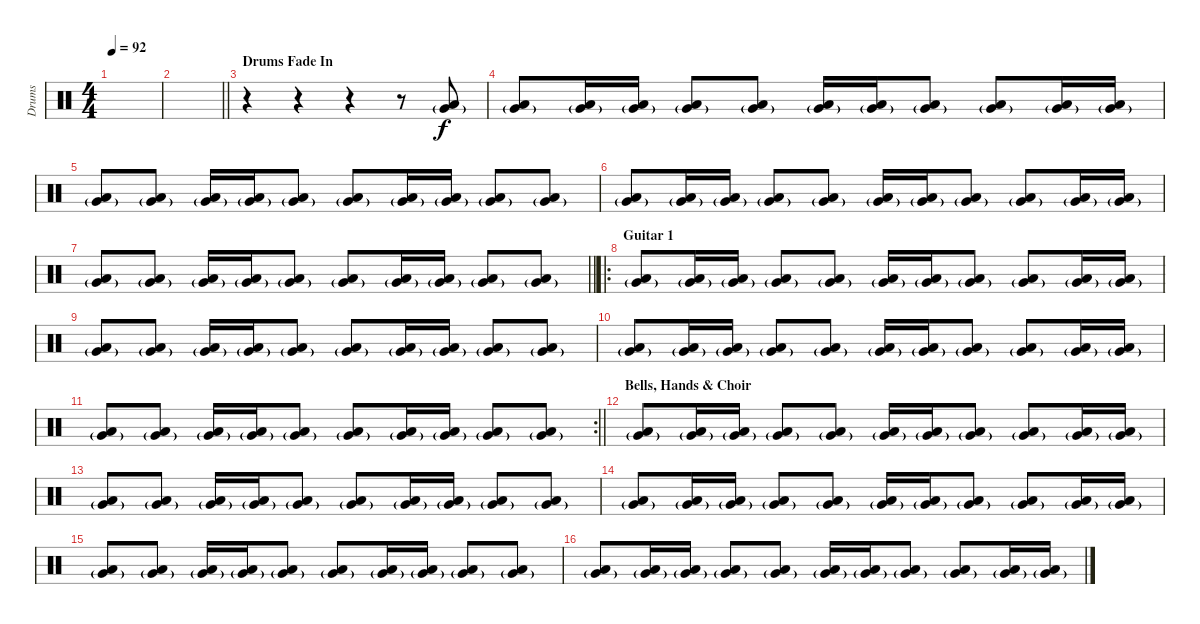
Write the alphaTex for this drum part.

\track ("Drums" "Drums") {instrument percussion}
\staff {score}
\articulation defaults
\ts (4 4)
\tempo 92
\clef neutral
\ks c
|
\barLineRight lightlight
|
\section ("" "Drums Fade In")
r.4 r.4 r.4 r.8 ("Very Low Tom (hit)"{g} "Low Floor Tom (hit)").8{volume 0} |
("Very Low Tom (hit)"{g} "Low Floor Tom (hit)").8{volume 16} ("Very Low Tom (hit)"{g} "Low Floor Tom (hit)").16 ("Very Low Tom (hit)"{g} "Low Floor Tom (hit)").16 ("Very Low Tom (hit)"{g} "Low Floor Tom (hit)").8 ("Very Low Tom (hit)"{g} "Low Floor Tom (hit)").8 ("Very Low Tom (hit)"{g} "Low Floor Tom (hit)").16 ("Very Low Tom (hit)"{g} "Low Floor Tom (hit)").16 ("Very Low Tom (hit)"{g} "Low Floor Tom (hit)").8 ("Very Low Tom (hit)"{g} "Low Floor Tom (hit)").8 ("Very Low Tom (hit)"{g} "Low Floor Tom (hit)").16 ("Very Low Tom (hit)"{g} "Low Floor Tom (hit)").16 |
("Very Low Tom (hit)"{g} "Low Floor Tom (hit)").8 ("Very Low Tom (hit)"{g} "Low Floor Tom (hit)").8 ("Very Low Tom (hit)"{g} "Low Floor Tom (hit)").16 ("Very Low Tom (hit)"{g} "Low Floor Tom (hit)").16 ("Very Low Tom (hit)"{g} "Low Floor Tom (hit)").8 ("Very Low Tom (hit)"{g} "Low Floor Tom (hit)").8 ("Very Low Tom (hit)"{g} "Low Floor Tom (hit)").16 ("Very Low Tom (hit)"{g} "Low Floor Tom (hit)").16 ("Very Low Tom (hit)"{g} "Low Floor Tom (hit)").8 ("Very Low Tom (hit)"{g} "Low Floor Tom (hit)").8 |
("Very Low Tom (hit)"{g} "Low Floor Tom (hit)").8 ("Very Low Tom (hit)"{g} "Low Floor Tom (hit)").16 ("Very Low Tom (hit)"{g} "Low Floor Tom (hit)").16 ("Very Low Tom (hit)"{g} "Low Floor Tom (hit)").8 ("Very Low Tom (hit)"{g} "Low Floor Tom (hit)").8 ("Very Low Tom (hit)"{g} "Low Floor Tom (hit)").16 ("Very Low Tom (hit)"{g} "Low Floor Tom (hit)").16 ("Very Low Tom (hit)"{g} "Low Floor Tom (hit)").8 ("Very Low Tom (hit)"{g} "Low Floor Tom (hit)").8 ("Very Low Tom (hit)"{g} "Low Floor Tom (hit)").16 ("Very Low Tom (hit)"{g} "Low Floor Tom (hit)").16 |
\barLineRight lightlight
("Very Low Tom (hit)"{g} "Low Floor Tom (hit)").8 ("Very Low Tom (hit)"{g} "Low Floor Tom (hit)").8 ("Very Low Tom (hit)"{g} "Low Floor Tom (hit)").16 ("Very Low Tom (hit)"{g} "Low Floor Tom (hit)").16 ("Very Low Tom (hit)"{g} "Low Floor Tom (hit)").8 ("Very Low Tom (hit)"{g} "Low Floor Tom (hit)").8 ("Very Low Tom (hit)"{g} "Low Floor Tom (hit)").16 ("Very Low Tom (hit)"{g} "Low Floor Tom (hit)").16 ("Very Low Tom (hit)"{g} "Low Floor Tom (hit)").8 ("Very Low Tom (hit)"{g} "Low Floor Tom (hit)").8 |
\ro
\section ("" "Guitar 1")
("Very Low Tom (hit)"{g} "Low Floor Tom (hit)").8 ("Very Low Tom (hit)"{g} "Low Floor Tom (hit)").16 ("Very Low Tom (hit)"{g} "Low Floor Tom (hit)").16 ("Very Low Tom (hit)"{g} "Low Floor Tom (hit)").8 ("Very Low Tom (hit)"{g} "Low Floor Tom (hit)").8 ("Very Low Tom (hit)"{g} "Low Floor Tom (hit)").16 ("Very Low Tom (hit)"{g} "Low Floor Tom (hit)").16 ("Very Low Tom (hit)"{g} "Low Floor Tom (hit)").8 ("Very Low Tom (hit)"{g} "Low Floor Tom (hit)").8 ("Very Low Tom (hit)"{g} "Low Floor Tom (hit)").16 ("Very Low Tom (hit)"{g} "Low Floor Tom (hit)").16 |
("Very Low Tom (hit)"{g} "Low Floor Tom (hit)").8 ("Very Low Tom (hit)"{g} "Low Floor Tom (hit)").8 ("Very Low Tom (hit)"{g} "Low Floor Tom (hit)").16 ("Very Low Tom (hit)"{g} "Low Floor Tom (hit)").16 ("Very Low Tom (hit)"{g} "Low Floor Tom (hit)").8 ("Very Low Tom (hit)"{g} "Low Floor Tom (hit)").8 ("Very Low Tom (hit)"{g} "Low Floor Tom (hit)").16 ("Very Low Tom (hit)"{g} "Low Floor Tom (hit)").16 ("Very Low Tom (hit)"{g} "Low Floor Tom (hit)").8 ("Very Low Tom (hit)"{g} "Low Floor Tom (hit)").8 |
("Very Low Tom (hit)"{g} "Low Floor Tom (hit)").8 ("Very Low Tom (hit)"{g} "Low Floor Tom (hit)").16 ("Very Low Tom (hit)"{g} "Low Floor Tom (hit)").16 ("Very Low Tom (hit)"{g} "Low Floor Tom (hit)").8 ("Very Low Tom (hit)"{g} "Low Floor Tom (hit)").8 ("Very Low Tom (hit)"{g} "Low Floor Tom (hit)").16 ("Very Low Tom (hit)"{g} "Low Floor Tom (hit)").16 ("Very Low Tom (hit)"{g} "Low Floor Tom (hit)").8 ("Very Low Tom (hit)"{g} "Low Floor Tom (hit)").8 ("Very Low Tom (hit)"{g} "Low Floor Tom (hit)").16 ("Very Low Tom (hit)"{g} "Low Floor Tom (hit)").16 |
\rc 2
\barLineRight lightlight
("Very Low Tom (hit)"{g} "Low Floor Tom (hit)").8 ("Very Low Tom (hit)"{g} "Low Floor Tom (hit)").8 ("Very Low Tom (hit)"{g} "Low Floor Tom (hit)").16 ("Very Low Tom (hit)"{g} "Low Floor Tom (hit)").16 ("Very Low Tom (hit)"{g} "Low Floor Tom (hit)").8 ("Very Low Tom (hit)"{g} "Low Floor Tom (hit)").8 ("Very Low Tom (hit)"{g} "Low Floor Tom (hit)").16 ("Very Low Tom (hit)"{g} "Low Floor Tom (hit)").16 ("Very Low Tom (hit)"{g} "Low Floor Tom (hit)").8 ("Very Low Tom (hit)"{g} "Low Floor Tom (hit)").8 |
\section ("" "Bells, Hands & Choir")
("Very Low Tom (hit)"{g} "Low Floor Tom (hit)").8 ("Very Low Tom (hit)"{g} "Low Floor Tom (hit)").16 ("Very Low Tom (hit)"{g} "Low Floor Tom (hit)").16 ("Very Low Tom (hit)"{g} "Low Floor Tom (hit)").8 ("Very Low Tom (hit)"{g} "Low Floor Tom (hit)").8 ("Very Low Tom (hit)"{g} "Low Floor Tom (hit)").16 ("Very Low Tom (hit)"{g} "Low Floor Tom (hit)").16 ("Very Low Tom (hit)"{g} "Low Floor Tom (hit)").8 ("Very Low Tom (hit)"{g} "Low Floor Tom (hit)").8 ("Very Low Tom (hit)"{g} "Low Floor Tom (hit)").16 ("Very Low Tom (hit)"{g} "Low Floor Tom (hit)").16 |
("Very Low Tom (hit)"{g} "Low Floor Tom (hit)").8 ("Very Low Tom (hit)"{g} "Low Floor Tom (hit)").8 ("Very Low Tom (hit)"{g} "Low Floor Tom (hit)").16 ("Very Low Tom (hit)"{g} "Low Floor Tom (hit)").16 ("Very Low Tom (hit)"{g} "Low Floor Tom (hit)").8 ("Very Low Tom (hit)"{g} "Low Floor Tom (hit)").8 ("Very Low Tom (hit)"{g} "Low Floor Tom (hit)").16 ("Very Low Tom (hit)"{g} "Low Floor Tom (hit)").16 ("Very Low Tom (hit)"{g} "Low Floor Tom (hit)").8 ("Very Low Tom (hit)"{g} "Low Floor Tom (hit)").8 |
("Very Low Tom (hit)"{g} "Low Floor Tom (hit)").8 ("Very Low Tom (hit)"{g} "Low Floor Tom (hit)").16 ("Very Low Tom (hit)"{g} "Low Floor Tom (hit)").16 ("Very Low Tom (hit)"{g} "Low Floor Tom (hit)").8 ("Very Low Tom (hit)"{g} "Low Floor Tom (hit)").8 ("Very Low Tom (hit)"{g} "Low Floor Tom (hit)").16 ("Very Low Tom (hit)"{g} "Low Floor Tom (hit)").16 ("Very Low Tom (hit)"{g} "Low Floor Tom (hit)").8 ("Very Low Tom (hit)"{g} "Low Floor Tom (hit)").8 ("Very Low Tom (hit)"{g} "Low Floor Tom (hit)").16 ("Very Low Tom (hit)"{g} "Low Floor Tom (hit)").16 |
("Very Low Tom (hit)"{g} "Low Floor Tom (hit)").8 ("Very Low Tom (hit)"{g} "Low Floor Tom (hit)").8 ("Very Low Tom (hit)"{g} "Low Floor Tom (hit)").16 ("Very Low Tom (hit)"{g} "Low Floor Tom (hit)").16 ("Very Low Tom (hit)"{g} "Low Floor Tom (hit)").8 ("Very Low Tom (hit)"{g} "Low Floor Tom (hit)").8 ("Very Low Tom (hit)"{g} "Low Floor Tom (hit)").16 ("Very Low Tom (hit)"{g} "Low Floor Tom (hit)").16 ("Very Low Tom (hit)"{g} "Low Floor Tom (hit)").8 ("Very Low Tom (hit)"{g} "Low Floor Tom (hit)").8 |
("Very Low Tom (hit)"{g} "Low Floor Tom (hit)").8 ("Very Low Tom (hit)"{g} "Low Floor Tom (hit)").16 ("Very Low Tom (hit)"{g} "Low Floor Tom (hit)").16 ("Very Low Tom (hit)"{g} "Low Floor Tom (hit)").8 ("Very Low Tom (hit)"{g} "Low Floor Tom (hit)").8 ("Very Low Tom (hit)"{g} "Low Floor Tom (hit)").16 ("Very Low Tom (hit)"{g} "Low Floor Tom (hit)").16 ("Very Low Tom (hit)"{g} "Low Floor Tom (hit)").8 ("Very Low Tom (hit)"{g} "Low Floor Tom (hit)").8 ("Very Low Tom (hit)"{g} "Low Floor Tom (hit)").16 ("Very Low Tom (hit)"{g} "Low Floor Tom (hit)").16
